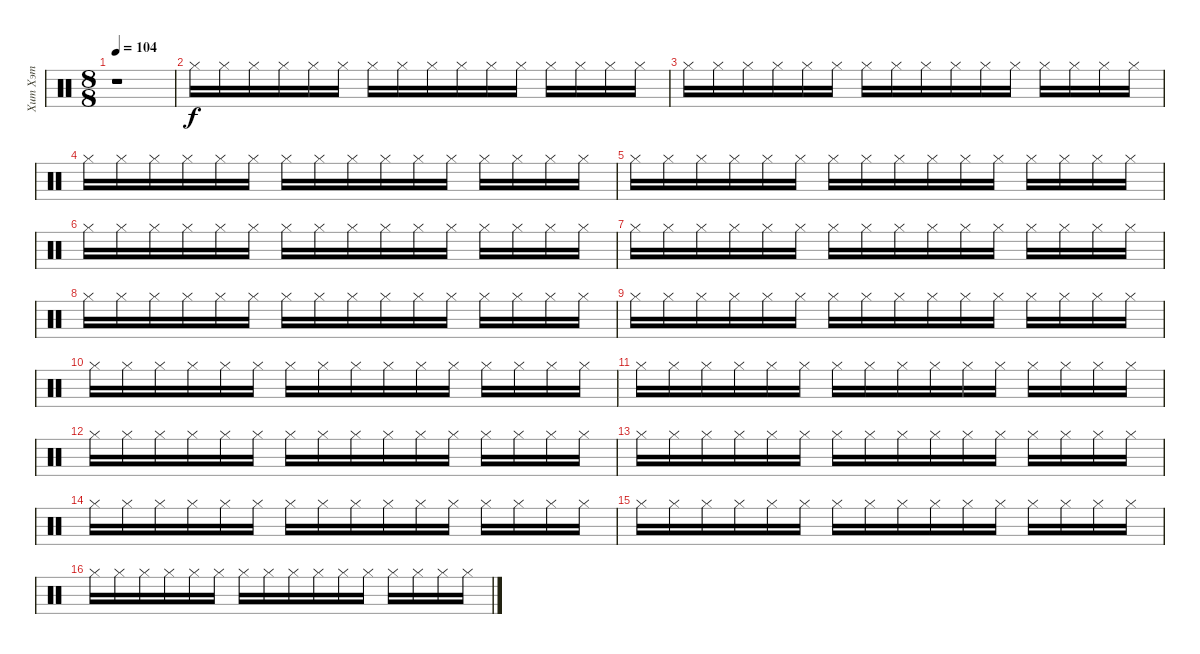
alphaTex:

\track ("Хит Хэт" "Хит Хэт") {instrument percussion}
\staff {score}
\articulation defaults
\ts (8 8)
\tempo 104
\clef neutral
\ks c
r.1{dy f} |
"Hi-Hat (closed)".16 "Hi-Hat (closed)".16 "Hi-Hat (closed)".16 "Hi-Hat (closed)".16 "Hi-Hat (closed)".16 "Hi-Hat (closed)".16 "Hi-Hat (closed)".16 "Hi-Hat (closed)".16 "Hi-Hat (closed)".16 "Hi-Hat (closed)".16 "Hi-Hat (closed)".16 "Hi-Hat (closed)".16 "Hi-Hat (closed)".16 "Hi-Hat (closed)".16 "Hi-Hat (closed)".16 "Hi-Hat (closed)".16 |
"Hi-Hat (closed)".16 "Hi-Hat (closed)".16 "Hi-Hat (closed)".16 "Hi-Hat (closed)".16 "Hi-Hat (closed)".16 "Hi-Hat (closed)".16 "Hi-Hat (closed)".16 "Hi-Hat (closed)".16 "Hi-Hat (closed)".16 "Hi-Hat (closed)".16 "Hi-Hat (closed)".16 "Hi-Hat (closed)".16 "Hi-Hat (closed)".16 "Hi-Hat (closed)".16 "Hi-Hat (closed)".16 "Hi-Hat (closed)".16 |
"Hi-Hat (closed)".16 "Hi-Hat (closed)".16 "Hi-Hat (closed)".16 "Hi-Hat (closed)".16 "Hi-Hat (closed)".16 "Hi-Hat (closed)".16 "Hi-Hat (closed)".16 "Hi-Hat (closed)".16 "Hi-Hat (closed)".16 "Hi-Hat (closed)".16 "Hi-Hat (closed)".16 "Hi-Hat (closed)".16 "Hi-Hat (closed)".16 "Hi-Hat (closed)".16 "Hi-Hat (closed)".16 "Hi-Hat (closed)".16 |
"Hi-Hat (closed)".16 "Hi-Hat (closed)".16 "Hi-Hat (closed)".16 "Hi-Hat (closed)".16 "Hi-Hat (closed)".16 "Hi-Hat (closed)".16 "Hi-Hat (closed)".16 "Hi-Hat (closed)".16 "Hi-Hat (closed)".16 "Hi-Hat (closed)".16 "Hi-Hat (closed)".16 "Hi-Hat (closed)".16 "Hi-Hat (closed)".16 "Hi-Hat (closed)".16 "Hi-Hat (closed)".16 "Hi-Hat (closed)".16 |
"Hi-Hat (closed)".16 "Hi-Hat (closed)".16 "Hi-Hat (closed)".16 "Hi-Hat (closed)".16 "Hi-Hat (closed)".16 "Hi-Hat (closed)".16 "Hi-Hat (closed)".16 "Hi-Hat (closed)".16 "Hi-Hat (closed)".16 "Hi-Hat (closed)".16 "Hi-Hat (closed)".16 "Hi-Hat (closed)".16 "Hi-Hat (closed)".16 "Hi-Hat (closed)".16 "Hi-Hat (closed)".16 "Hi-Hat (closed)".16 |
"Hi-Hat (closed)".16 "Hi-Hat (closed)".16 "Hi-Hat (closed)".16 "Hi-Hat (closed)".16 "Hi-Hat (closed)".16 "Hi-Hat (closed)".16 "Hi-Hat (closed)".16 "Hi-Hat (closed)".16 "Hi-Hat (closed)".16 "Hi-Hat (closed)".16 "Hi-Hat (closed)".16 "Hi-Hat (closed)".16 "Hi-Hat (closed)".16 "Hi-Hat (closed)".16 "Hi-Hat (closed)".16 "Hi-Hat (closed)".16 |
"Hi-Hat (closed)".16 "Hi-Hat (closed)".16 "Hi-Hat (closed)".16 "Hi-Hat (closed)".16 "Hi-Hat (closed)".16 "Hi-Hat (closed)".16 "Hi-Hat (closed)".16 "Hi-Hat (closed)".16 "Hi-Hat (closed)".16 "Hi-Hat (closed)".16 "Hi-Hat (closed)".16 "Hi-Hat (closed)".16 "Hi-Hat (closed)".16 "Hi-Hat (closed)".16 "Hi-Hat (closed)".16 "Hi-Hat (closed)".16 |
"Hi-Hat (closed)".16 "Hi-Hat (closed)".16 "Hi-Hat (closed)".16 "Hi-Hat (closed)".16 "Hi-Hat (closed)".16 "Hi-Hat (closed)".16 "Hi-Hat (closed)".16 "Hi-Hat (closed)".16 "Hi-Hat (closed)".16 "Hi-Hat (closed)".16 "Hi-Hat (closed)".16 "Hi-Hat (closed)".16 "Hi-Hat (closed)".16 "Hi-Hat (closed)".16 "Hi-Hat (closed)".16 "Hi-Hat (closed)".16 |
"Hi-Hat (closed)".16 "Hi-Hat (closed)".16 "Hi-Hat (closed)".16 "Hi-Hat (closed)".16 "Hi-Hat (closed)".16 "Hi-Hat (closed)".16 "Hi-Hat (closed)".16 "Hi-Hat (closed)".16 "Hi-Hat (closed)".16 "Hi-Hat (closed)".16 "Hi-Hat (closed)".16 "Hi-Hat (closed)".16 "Hi-Hat (closed)".16 "Hi-Hat (closed)".16 "Hi-Hat (closed)".16 "Hi-Hat (closed)".16 |
"Hi-Hat (closed)".16 "Hi-Hat (closed)".16 "Hi-Hat (closed)".16 "Hi-Hat (closed)".16 "Hi-Hat (closed)".16 "Hi-Hat (closed)".16 "Hi-Hat (closed)".16 "Hi-Hat (closed)".16 "Hi-Hat (closed)".16 "Hi-Hat (closed)".16 "Hi-Hat (closed)".16 "Hi-Hat (closed)".16 "Hi-Hat (closed)".16 "Hi-Hat (closed)".16 "Hi-Hat (closed)".16 "Hi-Hat (closed)".16 |
"Hi-Hat (closed)".16 "Hi-Hat (closed)".16 "Hi-Hat (closed)".16 "Hi-Hat (closed)".16 "Hi-Hat (closed)".16 "Hi-Hat (closed)".16 "Hi-Hat (closed)".16 "Hi-Hat (closed)".16 "Hi-Hat (closed)".16 "Hi-Hat (closed)".16 "Hi-Hat (closed)".16 "Hi-Hat (closed)".16 "Hi-Hat (closed)".16 "Hi-Hat (closed)".16 "Hi-Hat (closed)".16 "Hi-Hat (closed)".16 |
"Hi-Hat (closed)".16 "Hi-Hat (closed)".16 "Hi-Hat (closed)".16 "Hi-Hat (closed)".16 "Hi-Hat (closed)".16 "Hi-Hat (closed)".16 "Hi-Hat (closed)".16 "Hi-Hat (closed)".16 "Hi-Hat (closed)".16 "Hi-Hat (closed)".16 "Hi-Hat (closed)".16 "Hi-Hat (closed)".16 "Hi-Hat (closed)".16 "Hi-Hat (closed)".16 "Hi-Hat (closed)".16 "Hi-Hat (closed)".16 |
"Hi-Hat (closed)".16 "Hi-Hat (closed)".16 "Hi-Hat (closed)".16 "Hi-Hat (closed)".16 "Hi-Hat (closed)".16 "Hi-Hat (closed)".16 "Hi-Hat (closed)".16 "Hi-Hat (closed)".16 "Hi-Hat (closed)".16 "Hi-Hat (closed)".16 "Hi-Hat (closed)".16 "Hi-Hat (closed)".16 "Hi-Hat (closed)".16 "Hi-Hat (closed)".16 "Hi-Hat (closed)".16 "Hi-Hat (closed)".16 |
"Hi-Hat (closed)".16 "Hi-Hat (closed)".16 "Hi-Hat (closed)".16 "Hi-Hat (closed)".16 "Hi-Hat (closed)".16 "Hi-Hat (closed)".16 "Hi-Hat (closed)".16 "Hi-Hat (closed)".16 "Hi-Hat (closed)".16 "Hi-Hat (closed)".16 "Hi-Hat (closed)".16 "Hi-Hat (closed)".16 "Hi-Hat (closed)".16 "Hi-Hat (closed)".16 "Hi-Hat (closed)".16 "Hi-Hat (closed)".16 |
"Hi-Hat (closed)".16 "Hi-Hat (closed)".16 "Hi-Hat (closed)".16 "Hi-Hat (closed)".16 "Hi-Hat (closed)".16 "Hi-Hat (closed)".16 "Hi-Hat (closed)".16 "Hi-Hat (closed)".16 "Hi-Hat (closed)".16 "Hi-Hat (closed)".16 "Hi-Hat (closed)".16 "Hi-Hat (closed)".16 "Hi-Hat (closed)".16 "Hi-Hat (closed)".16 "Hi-Hat (closed)".16 "Hi-Hat (closed)".16
